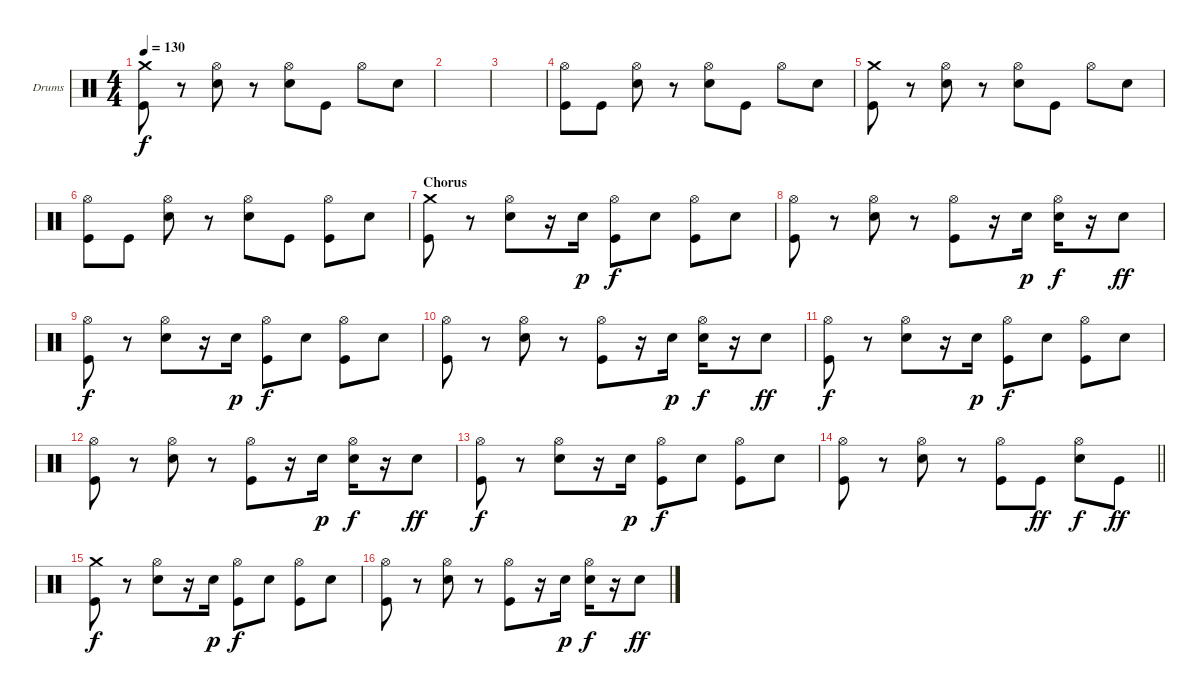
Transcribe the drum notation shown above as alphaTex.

\bracketExtendMode groupsimilarinstruments
\firstSystemTrackNameOrientation horizontal
\otherSystemsTrackNameOrientation horizontal
\track ("Drumkit" "Drums") {instrument percussion}
\staff {score}
\articulation defaults
\ts (4 4)
\tempo 130
\clef neutral
\ks c
("Crash medium (hit)" "Kick (hit)").8{dy f} r.8 ("Hi-Hat (open)" "Snare (hit) 2").8 r.8 ("Hi-Hat (open)" "Snare (hit) 2").8 "Kick (hit)".8 "Hi-Hat (open)".8 "Snare (hit) 2".8 |
|
|
("Hi-Hat (open)" "Kick (hit)").8 "Kick (hit)".8 ("Hi-Hat (open)" "Snare (hit) 2").8 r.8 ("Hi-Hat (open)" "Snare (hit) 2").8 "Kick (hit)".8 "Hi-Hat (open)".8 "Snare (hit) 2".8 |
("Crash medium (hit)" "Kick (hit)").8 r.8 ("Hi-Hat (open)" "Snare (hit) 2").8 r.8 ("Hi-Hat (open)" "Snare (hit) 2").8 "Kick (hit)".8 "Hi-Hat (open)".8 "Snare (hit) 2".8 |
("Hi-Hat (open)" "Kick (hit)").8 "Kick (hit)".8 ("Hi-Hat (open)" "Snare (hit) 2").8 r.8 ("Hi-Hat (open)" "Snare (hit) 2").8 "Kick (hit)".8 ("Hi-Hat (open)" "Kick (hit)").8 "Snare (hit) 2".8 |
\section ("" "Chorus")
("Crash medium (hit)" "Kick (hit)").8 r.8 ("Hi-Hat (open)" "Snare (hit) 2").8 r.16 "Snare (hit) 2".16{dy p} ("Hi-Hat (open)" "Kick (hit)").8{dy f} "Snare (hit) 2".8 ("Hi-Hat (open)" "Kick (hit)").8 "Snare (hit) 2".8 |
("Hi-Hat (open)" "Kick (hit)").8 r.8 ("Hi-Hat (open)" "Snare (hit) 2").8 r.8 ("Hi-Hat (open)" "Kick (hit)").8 r.16 "Snare (hit) 2".16{dy p} ("Hi-Hat (open)" "Snare (hit) 2").16{dy f} r.16 "Snare (hit) 2".8{dy ff} |
("Hi-Hat (open)" "Kick (hit)").8{dy f} r.8 ("Hi-Hat (open)" "Snare (hit) 2").8 r.16 "Snare (hit) 2".16{dy p} ("Hi-Hat (open)" "Kick (hit)").8{dy f} "Snare (hit) 2".8 ("Hi-Hat (open)" "Kick (hit)").8 "Snare (hit) 2".8 |
("Hi-Hat (open)" "Kick (hit)").8 r.8 ("Hi-Hat (open)" "Snare (hit) 2").8 r.8 ("Hi-Hat (open)" "Kick (hit)").8 r.16 "Snare (hit) 2".16{dy p} ("Hi-Hat (open)" "Snare (hit) 2").16{dy f} r.16 "Snare (hit) 2".8{dy ff} |
("Hi-Hat (open)" "Kick (hit)").8{dy f} r.8 ("Hi-Hat (open)" "Snare (hit) 2").8 r.16 "Snare (hit) 2".16{dy p} ("Hi-Hat (open)" "Kick (hit)").8{dy f} "Snare (hit) 2".8 ("Hi-Hat (open)" "Kick (hit)").8 "Snare (hit) 2".8 |
("Hi-Hat (open)" "Kick (hit)").8 r.8 ("Hi-Hat (open)" "Snare (hit) 2").8 r.8 ("Hi-Hat (open)" "Kick (hit)").8 r.16 "Snare (hit) 2".16{dy p} ("Hi-Hat (open)" "Snare (hit) 2").16{dy f} r.16 "Snare (hit) 2".8{dy ff} |
("Hi-Hat (open)" "Kick (hit)").8{dy f} r.8 ("Hi-Hat (open)" "Snare (hit) 2").8 r.16 "Snare (hit) 2".16{dy p} ("Hi-Hat (open)" "Kick (hit)").8{dy f} "Snare (hit) 2".8 ("Hi-Hat (open)" "Kick (hit)").8 "Snare (hit) 2".8 |
\barLineRight lightlight
("Hi-Hat (open)" "Kick (hit)").8 r.8 ("Hi-Hat (open)" "Snare (hit) 2").8 r.8 ("Hi-Hat (open)" "Kick (hit)").8 "Kick (hit)".8{dy ff} ("Hi-Hat (open)" "Snare (hit) 2").8{dy f} "Kick (hit)".8{dy ff} |
("Crash medium (hit)" "Kick (hit)").8{dy f} r.8 ("Hi-Hat (open)" "Snare (hit) 2").8 r.16 "Snare (hit) 2".16{dy p} ("Hi-Hat (open)" "Kick (hit)").8{dy f} "Snare (hit) 2".8 ("Hi-Hat (open)" "Kick (hit)").8 "Snare (hit) 2".8 |
("Hi-Hat (open)" "Kick (hit)").8 r.8 ("Hi-Hat (open)" "Snare (hit) 2").8 r.8 ("Hi-Hat (open)" "Kick (hit)").8 r.16 "Snare (hit) 2".16{dy p} ("Hi-Hat (open)" "Snare (hit) 2").16{dy f} r.16 "Snare (hit) 2".8{dy ff}
